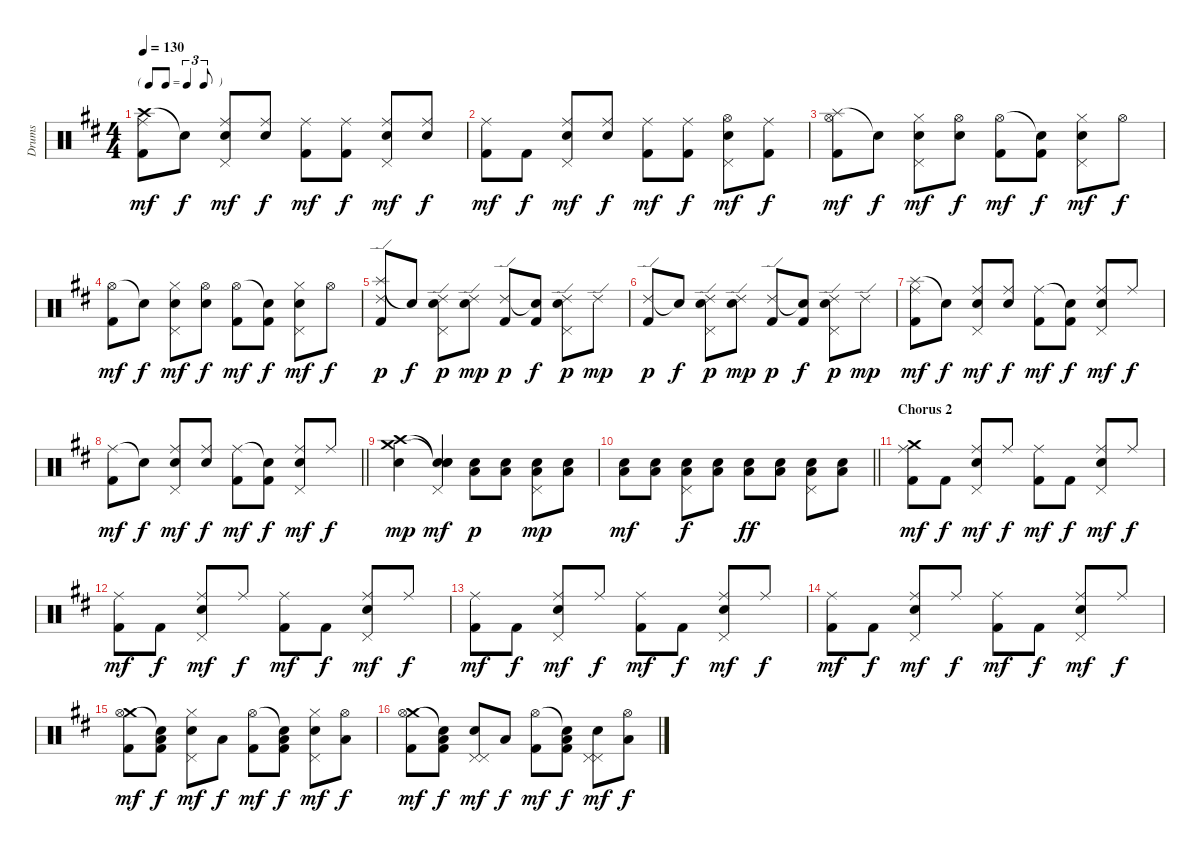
\track ("Drums" "Drums") {instrument percussion}
\staff {score}
\articulation defaults
\ts (4 4)
\tf triplet8th
\tempo 130
\clef neutral
\ks d
("Crash high (hit)" "Ride (middle)" "Kick (hit) 2").8{dy mf} "Snare (hit)"{t}.8{dy f} ("Ride (middle)" "Pedal Hi-Hat (hit)" "Snare (hit) 2").8{dy mf} ("Ride (middle)" "Snare (hit) 2").8{dy f} ("Ride (middle)" "Kick (hit) 2").8{dy mf} ("Ride (middle)" "Kick (hit) 2").8{dy f} ("Ride (middle)" "Pedal Hi-Hat (hit)" "Snare (hit) 2").8{dy mf} ("Ride (middle)" "Snare (hit) 2").8{dy f} |
("Ride (middle)" "Kick (hit) 2").8{dy mf} "Kick (hit) 2".8{dy f} ("Ride (middle)" "Pedal Hi-Hat (hit)" "Snare (hit) 2").8{dy mf} ("Ride (middle)" "Snare (hit) 2").8{dy f} ("Ride (middle)" "Kick (hit) 2").8{dy mf} ("Ride (middle)" "Kick (hit) 2").8{dy f} ("Hi-Hat (open)" "Pedal Hi-Hat (hit)" "Snare (hit) 2").8{dy mf} ("Ride (middle)" "Kick (hit) 2").8{dy f} |
("Splash (hit)" "Hi-Hat (open)" "Kick (hit) 2").8{dy mf} "Snare (hit)"{t}.8{dy f} ("Hi-Hat (closed)" "Pedal Hi-Hat (hit)" "Snare (hit) 2").8{dy mf} ("Hi-Hat (open)" "Snare (hit) 2").8{dy f} ("Hi-Hat (open)" "Kick (hit) 2").8{dy mf} ("Snare (hit)"{t} "Kick (hit) 2").8{dy f} ("Hi-Hat (closed)" "Pedal Hi-Hat (hit)" "Snare (hit) 2").8{dy mf} "Hi-Hat (open)".8{dy f} |
("Hi-Hat (open)" "Kick (hit) 2").8{dy mf} "Snare (hit)"{t}.8{dy f} ("Hi-Hat (closed)" "Pedal Hi-Hat (hit)" "Snare (hit) 2").8{dy mf} ("Hi-Hat (open)" "Snare (hit) 2").8{dy f} ("Hi-Hat (open)" "Kick (hit) 2").8{dy mf} ("Snare (hit)"{t} "Kick (hit) 2").8{dy f} ("Hi-Hat (closed)" "Pedal Hi-Hat (hit)" "Snare (hit) 2").8{dy mf} "Hi-Hat (open)".8{dy f} |
("Splash (hit)" "Ride (edge) 2" "Kick (hit) 2").8{dy p} "Snare (hit)"{t}.8{dy f} ("Ride (edge) 2" "Pedal Hi-Hat (hit)" "Snare (hit) 2").8{dy p} ("Ride (edge) 2" "Snare (hit) 2").8{dy mp} ("Ride (edge) 2" "Kick (hit) 2").8{dy p} ("Snare (hit)"{t} "Kick (hit) 2").8{dy f} ("Ride (edge) 2" "Pedal Hi-Hat (hit)" "Snare (hit) 2").8{dy p} "Ride (edge) 2".8{dy mp} |
("Ride (edge) 2" "Kick (hit) 2").8{dy p} "Snare (hit)"{t}.8{dy f} ("Ride (edge) 2" "Pedal Hi-Hat (hit)" "Snare (hit) 2").8{dy p} ("Ride (edge) 2" "Snare (hit) 2").8{dy mp} ("Ride (edge) 2" "Kick (hit) 2").8{dy p} ("Snare (hit)"{t} "Kick (hit) 2").8{dy f} ("Ride (edge) 2" "Pedal Hi-Hat (hit)" "Snare (hit) 2").8{dy p} "Ride (edge) 2".8{dy mp} |
("Splash (hit)" "Ride (middle)" "Kick (hit) 2").8{dy mf} "Snare (hit)"{t}.8{dy f} ("Ride (middle)" "Pedal Hi-Hat (hit)" "Snare (hit) 2").8{dy mf} ("Ride (middle)" "Snare (hit) 2").8{dy f} ("Ride (middle)" "Kick (hit) 2").8{dy mf} ("Snare (hit)"{t} "Kick (hit) 2").8{dy f} ("Ride (middle)" "Pedal Hi-Hat (hit)" "Snare (hit) 2").8{dy mf} "Ride (middle)".8{dy f} |
\barLineRight lightlight
("Ride (middle)" "Kick (hit) 2").8{dy mf} "Snare (hit)"{t}.8{dy f} ("Ride (middle)" "Pedal Hi-Hat (hit)" "Snare (hit) 2").8{dy mf} ("Ride (middle)" "Snare (hit) 2").8{dy f} ("Ride (middle)" "Kick (hit) 2").8{dy mf} ("Snare (hit)"{t} "Kick (hit) 2").8{dy f} ("Ride (middle)" "Pedal Hi-Hat (hit)" "Snare (hit) 2").8{dy mf} "Ride (middle)".8{dy f} |
("Crash medium (hit)" "Crash high (hit)" "Snare (hit) 2").4{dy mp} ("Snare (hit)"{t} "Snare (hit)"{t} "Pedal Hi-Hat (hit)" "Snare (hit)").4{dy mf} ("Low Tom (hit)" "Snare (hit) 2").8{dy p} ("Low Tom (hit)" "Snare (hit) 2").8 ("Pedal Hi-Hat (hit)" "Low Tom (hit)" "Snare (hit) 2").8{dy mp} ("Low Tom (hit)" "Snare (hit) 2").8 |
\barLineRight lightlight
("Low Tom (hit)" "Snare (hit) 2").8{dy mf} ("Low Tom (hit)" "Snare (hit) 2").8 ("Pedal Hi-Hat (hit)" "Low Tom (hit)" "Snare (hit) 2").8{dy f} ("Low Tom (hit)" "Snare (hit) 2").8 ("Low Tom (hit)" "Snare (hit) 2").8{dy ff} ("Low Tom (hit)" "Snare (hit) 2").8 ("Pedal Hi-Hat (hit)" "Low Tom (hit)" "Snare (hit) 2").8 ("Low Tom (hit)" "Snare (hit) 2").8 |
\section ("" "Chorus 2")
("Crash medium (hit)" "Ride (middle)" "Kick (hit) 2").8{dy mf} "Kick (hit) 2".8{dy f} ("Ride (middle)" "Pedal Hi-Hat (hit)" "Snare (hit) 2").8{dy mf} "Ride (middle)".8{dy f} ("Ride (middle)" "Kick (hit) 2").8{dy mf} "Kick (hit) 2".8{dy f} ("Ride (middle)" "Pedal Hi-Hat (hit)" "Snare (hit) 2").8{dy mf} "Ride (middle)".8{dy f} |
("Ride (middle)" "Kick (hit) 2").8{dy mf} "Kick (hit) 2".8{dy f} ("Ride (middle)" "Pedal Hi-Hat (hit)" "Snare (hit) 2").8{dy mf} "Ride (middle)".8{dy f} ("Ride (middle)" "Kick (hit) 2").8{dy mf} "Kick (hit) 2".8{dy f} ("Ride (middle)" "Pedal Hi-Hat (hit)" "Snare (hit) 2").8{dy mf} "Ride (middle)".8{dy f} |
("Ride (middle)" "Kick (hit) 2").8{dy mf} "Kick (hit) 2".8{dy f} ("Ride (middle)" "Pedal Hi-Hat (hit)" "Snare (hit) 2").8{dy mf} "Ride (middle)".8{dy f} ("Ride (middle)" "Kick (hit) 2").8{dy mf} "Kick (hit) 2".8{dy f} ("Ride (middle)" "Pedal Hi-Hat (hit)" "Snare (hit) 2").8{dy mf} "Ride (middle)".8{dy f} |
("Ride (middle)" "Kick (hit) 2").8{dy mf} "Kick (hit) 2".8{dy f} ("Ride (middle)" "Pedal Hi-Hat (hit)" "Snare (hit) 2").8{dy mf} "Ride (middle)".8{dy f} ("Ride (middle)" "Kick (hit) 2").8{dy mf} "Kick (hit) 2".8{dy f} ("Ride (middle)" "Pedal Hi-Hat (hit)" "Snare (hit) 2").8{dy mf} "Ride (middle)".8{dy f} |
("Crash medium (hit)" "Hi-Hat (open)" "Kick (hit) 2").8{dy mf} ("Snare (hit)"{t} "Low Tom (hit)" "Kick (hit) 2").8{dy f} ("Hi-Hat (closed)" "Pedal Hi-Hat (hit)" "Snare (hit) 2").8{dy mf} "Low Tom (hit)".8{dy f} ("Hi-Hat (open)" "Kick (hit) 2").8{dy mf} ("Snare (hit)"{t} "Low Tom (hit)" "Kick (hit) 2").8{dy f} ("Hi-Hat (closed)" "Pedal Hi-Hat (hit)" "Snare (hit) 2").8{dy mf} ("Hi-Hat (open)" "Low Tom (hit)").8{dy f} |
("Crash medium (hit)" "Hi-Hat (open)" "Kick (hit) 2").8{dy mf} ("Snare (hit)"{t} "Low Tom (hit)" "Kick (hit) 2").8{dy f} ("Pedal Hi-Hat (hit)" "Pedal Hi-Hat (hit)" "Snare (hit) 2").8{dy mf} "Low Tom (hit)".8{dy f} ("Hi-Hat (open)" "Kick (hit) 2").8{dy mf} ("Snare (hit)"{t} "Low Tom (hit)" "Kick (hit) 2").8{dy f} ("Pedal Hi-Hat (hit)" "Pedal Hi-Hat (hit)" "Snare (hit) 2").8{dy mf} ("Hi-Hat (open)" "Low Tom (hit)").8{dy f}
